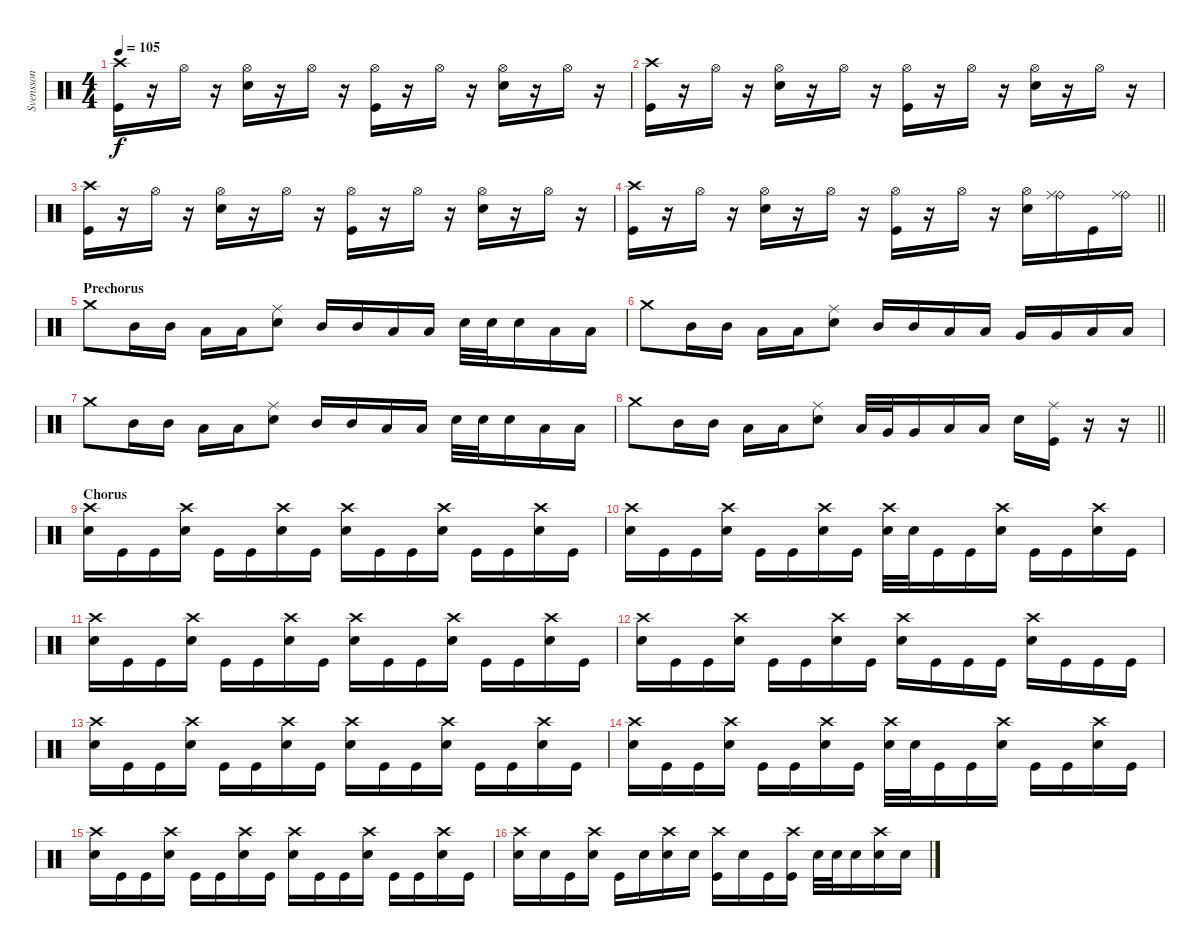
\track ("Svensson" "Svensson") {instrument percussion}
\staff {score}
\articulation defaults
\ts (4 4)
\tempo 105
\clef neutral
\ks c
("Crash high (hit)" "Kick (hit)").16{dy f} r.16 "Hi-Hat (open)".16 r.16 ("Hi-Hat (open)" "Snare (hit) 2").16 r.16 "Hi-Hat (open)".16 r.16 ("Hi-Hat (open)" "Kick (hit)").16 r.16 "Hi-Hat (open)".16 r.16 ("Hi-Hat (open)" "Snare (hit) 2").16 r.16 "Hi-Hat (open)".16 r.16 |
("Crash high (hit)" "Kick (hit)").16 r.16 "Hi-Hat (open)".16 r.16 ("Hi-Hat (open)" "Snare (hit) 2").16 r.16 "Hi-Hat (open)".16 r.16 ("Hi-Hat (open)" "Kick (hit)").16 r.16 "Hi-Hat (open)".16 r.16 ("Hi-Hat (open)" "Snare (hit) 2").16 r.16 "Hi-Hat (open)".16 r.16 |
("Crash high (hit)" "Kick (hit)").16 r.16 "Hi-Hat (open)".16 r.16 ("Hi-Hat (open)" "Snare (hit) 2").16 r.16 "Hi-Hat (open)".16 r.16 ("Hi-Hat (open)" "Kick (hit)").16 r.16 "Hi-Hat (open)".16 r.16 ("Hi-Hat (open)" "Snare (hit) 2").16 r.16 "Hi-Hat (open)".16 r.16 |
\barLineRight lightlight
("Crash high (hit)" "Kick (hit)").16 r.16 "Hi-Hat (open)".16 r.16 ("Hi-Hat (open)" "Snare (hit) 2").16 r.16 "Hi-Hat (open)".16 r.16 ("Hi-Hat (open)" "Kick (hit)").16 r.16 "Hi-Hat (open)".16 r.16 ("Hi-Hat (open)" "Snare (hit) 2").16 ("Ride (bell)" "Ride (middle)").16 "Kick (hit)".16 ("Ride (bell)" "Ride (middle)").16 |
\section ("" "Prechorus")
"Crash medium (hit)".8 "Mid Tom (hit)".16 "Mid Tom (hit)".16 "Low Tom (hit)".16 "Low Tom (hit)".16 ("Ride (middle)" "Snare (hit) 2").8 "Mid Tom (hit)".16 "Mid Tom (hit)".16 "Low Tom (hit)".16 "Low Tom (hit)".16 "Snare (hit) 2".32 "Snare (hit) 2".32 "Snare (hit) 2".16 "Low Tom (hit)".16 "Low Tom (hit)".16 |
"Crash medium (hit)".8 "Mid Tom (hit)".16 "Mid Tom (hit)".16 "Low Tom (hit)".16 "Low Tom (hit)".16 ("Ride (middle)" "Snare (hit) 2").8 "Mid Tom (hit)".16 "Mid Tom (hit)".16 "Low Tom (hit)".16 "Low Tom (hit)".16 "Very Low Tom (hit)".16 "Very Low Tom (hit)".16 "Low Tom (hit)".16 "Low Tom (hit)".16 |
"Crash medium (hit)".8 "Mid Tom (hit)".16 "Mid Tom (hit)".16 "Low Tom (hit)".16 "Low Tom (hit)".16 ("Ride (middle)" "Snare (hit) 2").8 "Mid Tom (hit)".16 "Mid Tom (hit)".16 "Low Tom (hit)".16 "Low Tom (hit)".16 "Snare (hit) 2".32 "Snare (hit) 2".32 "Snare (hit) 2".16 "Low Tom (hit)".16 "Low Tom (hit)".16 |
\barLineRight lightlight "Crash medium (hit)".8 "Mid Tom (hit)".16 "Mid Tom (hit)".16 "Low Tom (hit)".16 "Low Tom (hit)".16
("Ride (middle)" "Snare (hit) 2").8 "Low Tom (hit)".32 "Very Low Tom (hit)".32 "Very Low Tom (hit)".16 "Low Tom (hit)".16 "Low Tom (hit)".16 "Snare (hit) 2".16 ("Ride (middle)" "Kick (hit)").16 r.16 r.16 |
\section ("" "Chorus")
("Crash high (hit)" "Snare (hit) 2").16 "Kick (hit)".16 "Kick (hit)".16 ("Crash high (hit)" "Snare (hit) 2").16 "Kick (hit)".16 "Kick (hit)".16 ("Crash high (hit)" "Snare (hit) 2").16 "Kick (hit)".16 ("Crash high (hit)" "Snare (hit) 2").16 "Kick (hit)".16 "Kick (hit)".16 ("Crash high (hit)" "Snare (hit) 2").16 "Kick (hit)".16 "Kick (hit)".16 ("Crash high (hit)" "Snare (hit) 2").16 "Kick (hit)".16 |
("Crash high (hit)" "Snare (hit) 2").16 "Kick (hit)".16 "Kick (hit)".16 ("Crash high (hit)" "Snare (hit) 2").16 "Kick (hit)".16 "Kick (hit)".16 ("Crash high (hit)" "Snare (hit) 2").16 "Kick (hit)".16 ("Crash high (hit)" "Snare (hit) 2").32 "Snare (hit) 2".32 "Kick (hit)".16 "Kick (hit)".16 ("Crash high (hit)" "Snare (hit) 2").16 "Kick (hit)".16 "Kick (hit)".16 ("Crash high (hit)" "Snare (hit) 2").16 "Kick (hit)".16 |
("Crash high (hit)" "Snare (hit) 2").16 "Kick (hit)".16 "Kick (hit)".16 ("Crash high (hit)" "Snare (hit) 2").16 "Kick (hit)".16 "Kick (hit)".16 ("Crash high (hit)" "Snare (hit) 2").16 "Kick (hit)".16 ("Crash high (hit)" "Snare (hit) 2").16 "Kick (hit)".16 "Kick (hit)".16 ("Crash high (hit)" "Snare (hit) 2").16 "Kick (hit)".16 "Kick (hit)".16 ("Crash high (hit)" "Snare (hit) 2").16 "Kick (hit)".16 |
("Crash high (hit)" "Snare (hit) 2").16 "Kick (hit)".16 "Kick (hit)".16 ("Crash high (hit)" "Snare (hit) 2").16 "Kick (hit)".16 "Kick (hit)".16 ("Crash high (hit)" "Snare (hit) 2").16 "Kick (hit)".16 ("Crash high (hit)" "Snare (hit) 2").16 "Kick (hit)".16 "Kick (hit)".16 "Kick (hit)".16 ("Crash high (hit)" "Snare (hit) 2").16 "Kick (hit)".16 "Kick (hit)".16 "Kick (hit)".16 |
("Crash high (hit)" "Snare (hit) 2").16 "Kick (hit)".16 "Kick (hit)".16 ("Crash high (hit)" "Snare (hit) 2").16 "Kick (hit)".16 "Kick (hit)".16 ("Crash high (hit)" "Snare (hit) 2").16 "Kick (hit)".16 ("Crash high (hit)" "Snare (hit) 2").16 "Kick (hit)".16 "Kick (hit)".16 ("Crash high (hit)" "Snare (hit) 2").16 "Kick (hit)".16 "Kick (hit)".16 ("Crash high (hit)" "Snare (hit) 2").16 "Kick (hit)".16 |
("Crash high (hit)" "Snare (hit) 2").16 "Kick (hit)".16 "Kick (hit)".16 ("Crash high (hit)" "Snare (hit) 2").16 "Kick (hit)".16 "Kick (hit)".16 ("Crash high (hit)" "Snare (hit) 2").16 "Kick (hit)".16 ("Crash high (hit)" "Snare (hit) 2").32 "Snare (hit) 2".32 "Kick (hit)".16 "Kick (hit)".16 ("Crash high (hit)" "Snare (hit) 2").16 "Kick (hit)".16 "Kick (hit)".16 ("Crash high (hit)" "Snare (hit) 2").16 "Kick (hit)".16 |
("Crash high (hit)" "Snare (hit) 2").16 "Kick (hit)".16 "Kick (hit)".16 ("Crash high (hit)" "Snare (hit) 2").16 "Kick (hit)".16 "Kick (hit)".16 ("Crash high (hit)" "Snare (hit) 2").16 "Kick (hit)".16 ("Crash high (hit)" "Snare (hit) 2").16 "Kick (hit)".16 "Kick (hit)".16 ("Crash high (hit)" "Snare (hit) 2").16 "Kick (hit)".16 "Kick (hit)".16 ("Crash high (hit)" "Snare (hit) 2").16 "Kick (hit)".16 |
("Crash high (hit)" "Snare (hit) 2").16 "Snare (hit) 2".16 "Kick (hit)".16 ("Crash high (hit)" "Snare (hit) 2").16 "Kick (hit)".16 "Snare (hit) 2".16 ("Crash high (hit)" "Snare (hit) 2").16 "Snare (hit) 2".16 ("Crash high (hit)" "Kick (hit)").16 "Snare (hit) 2".16 "Kick (hit)".16 ("Crash high (hit)" "Kick (hit)").16 "Snare (hit) 2".32 "Snare (hit) 2".32 "Snare (hit) 2".16 ("Crash high (hit)" "Snare (hit) 2").16 "Snare (hit) 2".16
